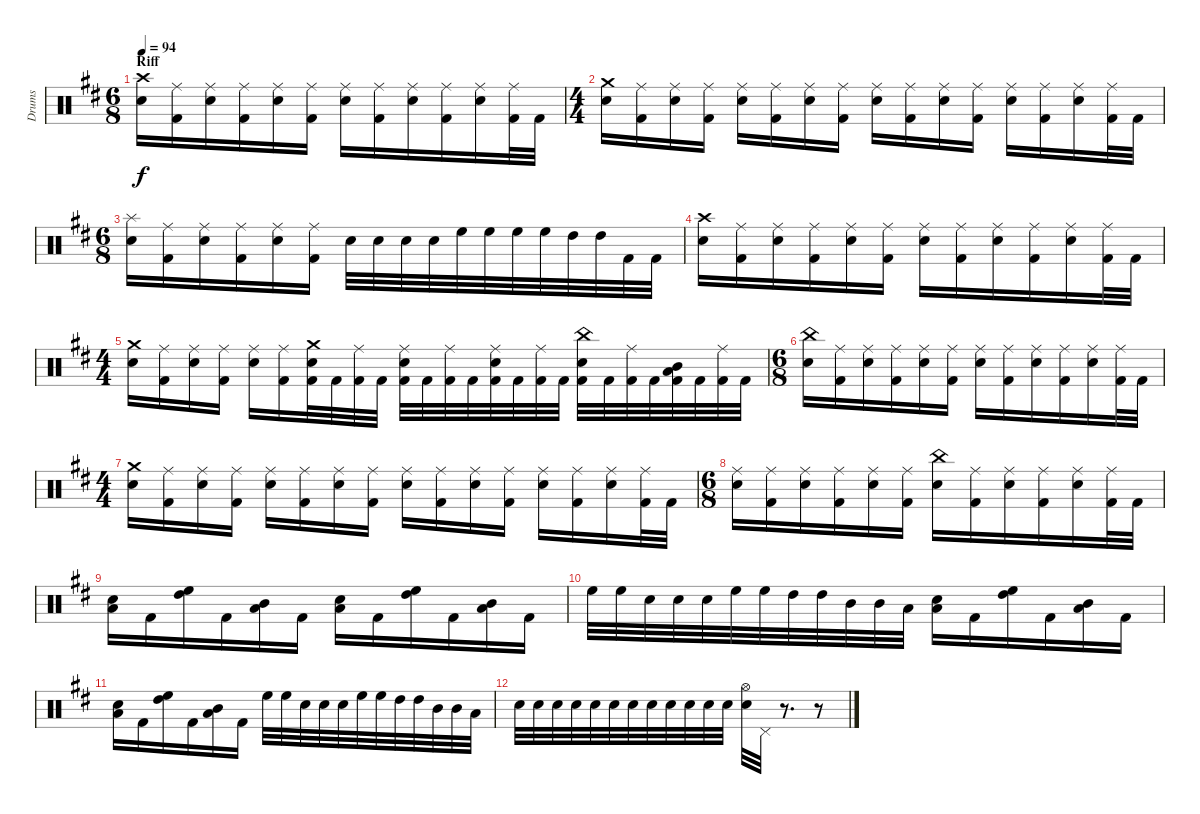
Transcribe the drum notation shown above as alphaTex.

\track ("Drums" "Drums") {instrument percussion}
\staff {score}
\articulation defaults
\ts (6 8)
\section ("" "Riff")
\tempo 94
\clef neutral
\ks bminor
("Crash high (hit)" "Snare (hit) 2").16{dy f} ("Ride (middle)" "Kick (hit) 2").16 ("Ride (middle)" "Snare (hit) 2").16 ("Ride (middle)" "Kick (hit) 2").16 ("Ride (middle)" "Snare (hit) 2").16 ("Ride (middle)" "Kick (hit) 2").16 ("Ride (middle)" "Snare (hit) 2").16 ("Ride (middle)" "Kick (hit) 2").16 ("Ride (middle)" "Snare (hit) 2").16 ("Ride (middle)" "Kick (hit) 2").16 ("Ride (middle)" "Snare (hit) 2").16 ("Ride (middle)" "Kick (hit) 2").32 "Kick (hit) 2".32 |
\ts (4 4)
("Crash medium (hit)" "Snare (hit) 2").16 ("Ride (middle)" "Kick (hit) 2").16 ("Ride (middle)" "Snare (hit) 2").16 ("Ride (middle)" "Kick (hit) 2").16 ("Ride (middle)" "Snare (hit) 2").16 ("Ride (middle)" "Kick (hit) 2").16 ("Ride (middle)" "Snare (hit) 2").16 ("Ride (middle)" "Kick (hit) 2").16 ("Ride (middle)" "Snare (hit) 2").16 ("Ride (middle)" "Kick (hit) 2").16 ("Ride (middle)" "Snare (hit) 2").16 ("Ride (middle)" "Kick (hit) 2").16 ("Ride (middle)" "Snare (hit) 2").16 ("Ride (middle)" "Kick (hit) 2").16 ("Ride (middle)" "Snare (hit) 2").16 ("Ride (middle)" "Kick (hit) 2").32 "Kick (hit) 2".32 |
\ts (6 8)
("Splash (hit)" "Snare (hit) 2").16 ("Ride (middle)" "Kick (hit) 2").16 ("Ride (middle)" "Snare (hit) 2").16 ("Ride (middle)" "Kick (hit) 2").16 ("Ride (middle)" "Snare (hit) 2").16 ("Ride (middle)" "Kick (hit) 2").16 "Snare (hit) 2".32 "Snare (hit) 2".32 "Snare (hit) 2".32 "Snare (hit) 2".32 "High Floor Tom (hit)".32 "High Floor Tom (hit)".32 "High Floor Tom (hit)".32 "High Floor Tom (hit)".32 "High Tom (hit)".32 "High Tom (hit)".32 "Kick (hit) 2".32 "Kick (hit) 2".32 |
("Crash high (hit)" "Snare (hit) 2").16 ("Ride (middle)" "Kick (hit) 2").16 ("Ride (middle)" "Snare (hit) 2").16 ("Ride (middle)" "Kick (hit) 2").16 ("Ride (middle)" "Snare (hit) 2").16 ("Ride (middle)" "Kick (hit) 2").16 ("Ride (middle)" "Snare (hit) 2").16 ("Ride (middle)" "Kick (hit) 2").16 ("Ride (middle)" "Snare (hit) 2").16 ("Ride (middle)" "Kick (hit) 2").16 ("Ride (middle)" "Snare (hit) 2").16 ("Ride (middle)" "Kick (hit) 2").32 "Kick (hit) 2".32 |
\ts (4 4)
("Crash medium (hit)" "Snare (hit) 2").16 ("Ride (middle)" "Kick (hit) 2").16 ("Ride (middle)" "Snare (hit) 2").16 ("Ride (middle)" "Kick (hit) 2").16 ("Ride (middle)" "Snare (hit) 2").16 ("Ride (middle)" "Kick (hit) 2").16 ("Crash medium (hit)" "Snare (hit) 2" "Kick (hit) 2").32 "Kick (hit) 2".32 ("Ride (middle)" "Kick (hit) 2").32 "Kick (hit) 2".32 ("Ride (middle)" "Snare (hit) 2" "Kick (hit) 2").32 "Kick (hit) 2".32 ("Ride (middle)" "Kick (hit) 2").32 "Kick (hit) 2".32 ("Ride (middle)" "Snare (hit) 2" "Kick (hit) 2").32 "Kick (hit) 2".32 ("Ride (middle)" "Kick (hit) 2").32 "Kick (hit) 2".32 ("China (hit)" "Snare (hit) 2" "Kick (hit) 2").32 "Kick (hit) 2".32 ("Ride (middle)" "Kick (hit) 2").32 "Kick (hit) 2".32 ("Mid Tom (hit)" "Low Tom (hit)" "Kick (hit) 2").32 "Kick (hit) 2".32 ("Ride (middle)" "Kick (hit) 2").32 "Kick (hit) 2".32 |
\ts (6 8)
("China (hit)" "Snare (hit) 2").16 ("Ride (middle)" "Kick (hit) 2").16 ("Ride (middle)" "Snare (hit) 2").16 ("Ride (middle)" "Kick (hit) 2").16 ("Ride (middle)" "Snare (hit) 2").16 ("Ride (middle)" "Kick (hit) 2").16 ("Ride (middle)" "Snare (hit) 2").16 ("Ride (middle)" "Kick (hit) 2").16 ("Ride (middle)" "Snare (hit) 2").16 ("Ride (middle)" "Kick (hit) 2").16 ("Ride (middle)" "Snare (hit) 2").16 ("Ride (middle)" "Kick (hit) 2").32 "Kick (hit) 2".32 |
\ts (4 4)
("Crash medium (hit)" "Snare (hit) 2").16 ("Ride (middle)" "Kick (hit) 2").16 ("Ride (middle)" "Snare (hit) 2").16 ("Ride (middle)" "Kick (hit) 2").16 ("Ride (middle)" "Snare (hit) 2").16 ("Ride (middle)" "Kick (hit) 2").16 ("Ride (middle)" "Snare (hit) 2").16 ("Ride (middle)" "Kick (hit) 2").16 ("Ride (middle)" "Snare (hit) 2").16 ("Ride (middle)" "Kick (hit) 2").16 ("Ride (middle)" "Snare (hit) 2").16 ("Ride (middle)" "Kick (hit) 2").16 ("Ride (middle)" "Snare (hit) 2").16 ("Ride (middle)" "Kick (hit) 2").16 ("Ride (middle)" "Snare (hit) 2").16 ("Ride (middle)" "Kick (hit) 2").32 "Kick (hit) 2".32 |
\ts (6 8)
("Ride (middle)" "Snare (hit) 2").16 ("Ride (middle)" "Kick (hit) 2").16 ("Ride (middle)" "Snare (hit) 2").16 ("Ride (middle)" "Kick (hit) 2").16 ("Ride (middle)" "Snare (hit) 2").16 ("Ride (middle)" "Kick (hit) 2").16 ("China (hit)" "Snare (hit) 2").16 ("Ride (middle)" "Kick (hit) 2").16 ("Ride (middle)" "Snare (hit) 2").16 ("Ride (middle)" "Kick (hit) 2").16 ("Ride (middle)" "Snare (hit) 2").16 ("Ride (middle)" "Kick (hit) 2").32 "Kick (hit) 2".32 |
("Low Tom (hit)" "Snare (hit) 2").16 "Kick (hit) 2".16 ("High Tom (hit)" "High Floor Tom (hit)").16 "Kick (hit) 2".16 ("Low Tom (hit)" "Mid Tom (hit)").16 "Kick (hit) 2".16 ("Low Tom (hit)" "Snare (hit) 2").16 "Kick (hit) 2".16 ("High Tom (hit)" "High Floor Tom (hit)").16 "Kick (hit) 2".16 ("Low Tom (hit)" "Mid Tom (hit)").16 "Kick (hit) 2".16 |
"High Floor Tom (hit)".32 "High Floor Tom (hit)".32 "Snare (hit) 2".32 "Snare (hit) 2".32 "Snare (hit) 2".32 "High Floor Tom (hit)".32 "High Floor Tom (hit)".32 "High Tom (hit)".32 "High Tom (hit)".32 "Mid Tom (hit)".32 "Mid Tom (hit)".32 "Low Tom (hit)".32 ("Low Tom (hit)" "Snare (hit) 2").16 "Kick (hit) 2".16 ("High Tom (hit)" "High Floor Tom (hit)").16 "Kick (hit) 2".16 ("Low Tom (hit)" "Mid Tom (hit)").16 "Kick (hit) 2".16 |
("Low Tom (hit)" "Snare (hit) 2").16 "Kick (hit) 2".16 ("High Tom (hit)" "High Floor Tom (hit)").16 "Kick (hit) 2".16 ("Low Tom (hit)" "Mid Tom (hit)").16 "Kick (hit) 2".16 "High Floor Tom (hit)".32 "High Floor Tom (hit)".32 "Snare (hit) 2".32 "Snare (hit) 2".32 "Snare (hit) 2".32 "High Floor Tom (hit)".32 "High Floor Tom (hit)".32 "High Tom (hit)".32 "High Tom (hit)".32 "Mid Tom (hit)".32 "Mid Tom (hit)".32 "Low Tom (hit)".32 |
"Snare (hit) 2".32 "Snare (hit) 2".32 "Snare (hit) 2".32 "Snare (hit) 2".32 "Snare (hit) 2".32 "Snare (hit) 2".32 "Snare (hit) 2".32 "Snare (hit) 2".32 "Snare (hit) 2".32 "Snare (hit) 2".32 "Snare (hit) 2".32 "Snare (hit) 2".32 ("Hi-Hat (open)" "Snare (hit) 2").32 "Pedal Hi-Hat (hit)".32 r.8{d} r.8
